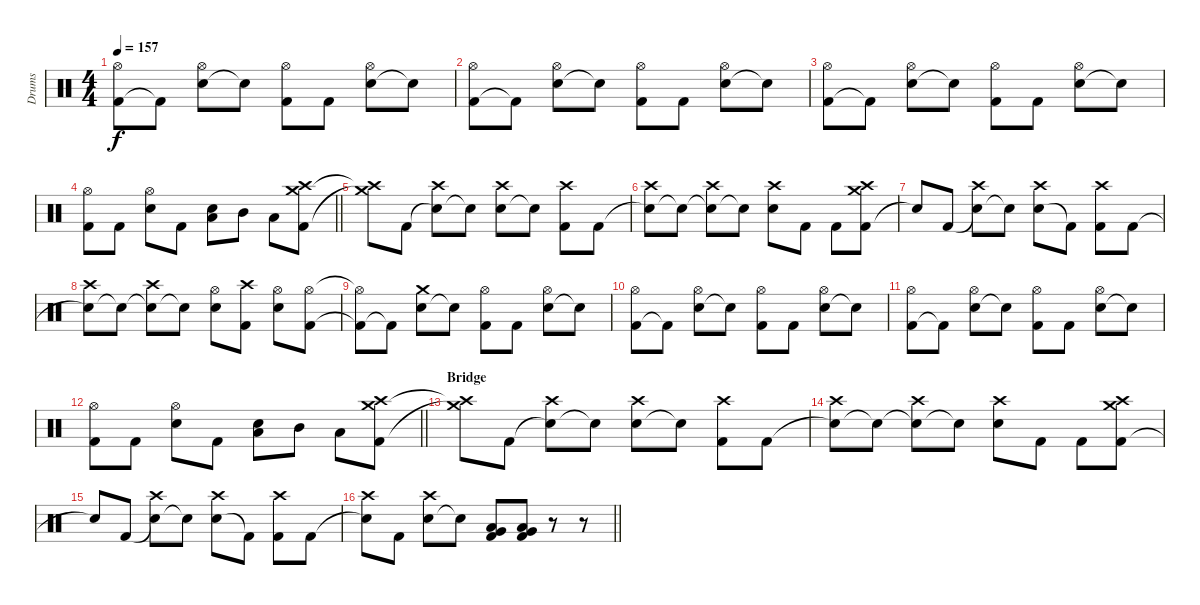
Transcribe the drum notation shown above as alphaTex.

\track ("Drums" "Drums") {instrument percussion}
\staff {score}
\articulation defaults
\ts (4 4)
\tempo 157
\clef neutral
\ks c
("Kick (hit) 2"{t} "Hi-Hat (open)").8{dy f} "Kick (hit) 2"{t}.8 ("Electric Snare (hit)" "Hi-Hat (open)").8 "Snare (hit)"{t}.8 ("Kick (hit) 2" "Hi-Hat (open)").8 "Kick (hit) 2".8 ("Electric Snare (hit)" "Hi-Hat (open)").8 "Snare (hit)"{t}.8 |
("Kick (hit) 2" "Hi-Hat (open)").8 "Kick (hit) 2"{t}.8 ("Electric Snare (hit)" "Hi-Hat (open)").8 "Snare (hit)"{t}.8 ("Kick (hit) 2" "Hi-Hat (open)").8 "Kick (hit) 2".8 ("Electric Snare (hit)" "Hi-Hat (open)").8 "Snare (hit)"{t}.8 |
("Kick (hit) 2" "Hi-Hat (open)").8 "Kick (hit) 2"{t}.8 ("Electric Snare (hit)" "Hi-Hat (open)").8 "Snare (hit)"{t}.8 ("Kick (hit) 2" "Hi-Hat (open)").8 "Kick (hit) 2".8 ("Electric Snare (hit)" "Hi-Hat (open)").8 "Snare (hit)"{t}.8 |
\barLineRight lightlight
("Kick (hit) 2" "Hi-Hat (open)").8 "Kick (hit) 2".8 ("Electric Snare (hit)" "Hi-Hat (open)").8 "Kick (hit) 2".8 ("Electric Snare (hit)" "Low Floor Tom (hit)").8 "Mid Tom (hit)".8 "Low Tom (hit)".8 ("Kick (hit) 2" "Crash medium (hit)" "Crash high (hit)").8 |
("Crash medium (hit)"{t} "Crash high (hit)"{t}).8 "Kick (hit) 2".8 ("Snare (hit)"{t} "Crash high (hit)").8 "Snare (hit)"{t}.8 ("Electric Snare (hit)" "Crash high (hit)").8 "Snare (hit)"{t}.8 ("Kick (hit) 2" "Crash high (hit)").8 "Kick (hit) 2".8 |
("Snare (hit)"{t} "Crash high (hit)").8 "Snare (hit)"{t}.8 ("Snare (hit)"{t} "Crash high (hit)").8 "Electric Snare (hit)"{t}.8 ("Electric Snare (hit)" "Crash high (hit)").8 "Kick (hit) 2".8 "Kick (hit) 2".8 ("Kick (hit) 2" "Crash medium (hit)" "Crash high (hit)").8 |
"Snare (hit)"{t}.8 "Kick (hit) 2".8 ("Snare (hit)"{t} "Crash high (hit)").8 "Electric Snare (hit)"{t}.8 ("Electric Snare (hit)" "Crash high (hit)").8 "Kick (hit) 2"{t}.8 ("Kick (hit) 2" "Crash high (hit)").8 "Kick (hit) 2".8 |
("Electric Snare (hit)"{t} "Crash high (hit)").8 "Snare (hit)"{t}.8 ("Snare (hit)"{t} "Crash high (hit)").8 "Snare (hit)"{t}.8 ("Electric Snare (hit)" "Hi-Hat (open)").8 ("Kick (hit) 2" "Crash high (hit)").8 ("Electric Snare (hit)" "Hi-Hat (open)").8 ("Kick (hit) 2" "Hi-Hat (open)").8 |
("Kick (hit) 2"{t} "Hi-Hat (open)"{t}).8 "Kick (hit) 2"{t}.8 ("Electric Snare (hit)" "Crash medium (hit)").8 "Snare (hit)"{t}.8 ("Kick (hit) 2" "Hi-Hat (open)").8 "Kick (hit) 2".8 ("Electric Snare (hit)" "Hi-Hat (open)").8 "Snare (hit)"{t}.8 |
("Kick (hit) 2" "Hi-Hat (open)").8 "Kick (hit) 2"{t}.8 ("Electric Snare (hit)" "Hi-Hat (open)").8 "Snare (hit)"{t}.8 ("Kick (hit) 2" "Hi-Hat (open)").8 "Kick (hit) 2".8 ("Electric Snare (hit)" "Hi-Hat (open)").8 "Snare (hit)"{t}.8 |
("Kick (hit) 2" "Hi-Hat (open)").8 "Kick (hit) 2"{t}.8 ("Electric Snare (hit)" "Hi-Hat (open)").8 "Snare (hit)"{t}.8 ("Kick (hit) 2" "Hi-Hat (open)").8 "Kick (hit) 2".8 ("Electric Snare (hit)" "Hi-Hat (open)").8 "Snare (hit)"{t}.8 |
\barLineRight lightlight
("Kick (hit) 2" "Hi-Hat (open)").8 "Kick (hit) 2".8 ("Electric Snare (hit)" "Hi-Hat (open)").8 "Kick (hit) 2".8 ("Electric Snare (hit)" "Low Floor Tom (hit)").8 "Mid Tom (hit)".8 "Low Tom (hit)".8 ("Kick (hit) 2" "Crash medium (hit)" "Crash high (hit)").8 |
\section ("" "Bridge")
("Crash medium (hit)"{t} "Crash high (hit)"{t}).8 "Kick (hit) 2".8 ("Snare (hit)"{t} "Crash high (hit)").8 "Snare (hit)"{t}.8 ("Electric Snare (hit)" "Crash high (hit)").8 "Snare (hit)"{t}.8 ("Kick (hit) 2" "Crash high (hit)").8 "Kick (hit) 2".8 |
("Snare (hit)"{t} "Crash high (hit)").8 "Snare (hit)"{t}.8 ("Snare (hit)"{t} "Crash high (hit)").8 "Electric Snare (hit)"{t}.8 ("Electric Snare (hit)" "Crash high (hit)").8 "Kick (hit) 2".8 "Kick (hit) 2".8 ("Kick (hit) 2" "Crash medium (hit)" "Crash high (hit)").8 |
"Snare (hit)"{t}.8 "Kick (hit) 2".8 ("Snare (hit)"{t} "Crash high (hit)").8 "Electric Snare (hit)"{t}.8 ("Electric Snare (hit)" "Crash high (hit)").8 "Kick (hit) 2"{t}.8 ("Kick (hit) 2" "Crash high (hit)").8 "Kick (hit) 2".8 |
\barLineRight lightlight
("Electric Snare (hit)"{t} "Crash high (hit)").8 "Kick (hit) 2".8 ("Electric Snare (hit)" "Crash high (hit)").8 "Snare (hit)"{t}.8 ("Kick (hit) 2" "Very Low Tom (hit)" "Low Floor Tom (hit)").8 ("Kick (hit) 2" "Very Low Tom (hit)" "Low Floor Tom (hit)").8 r.8 r.8
